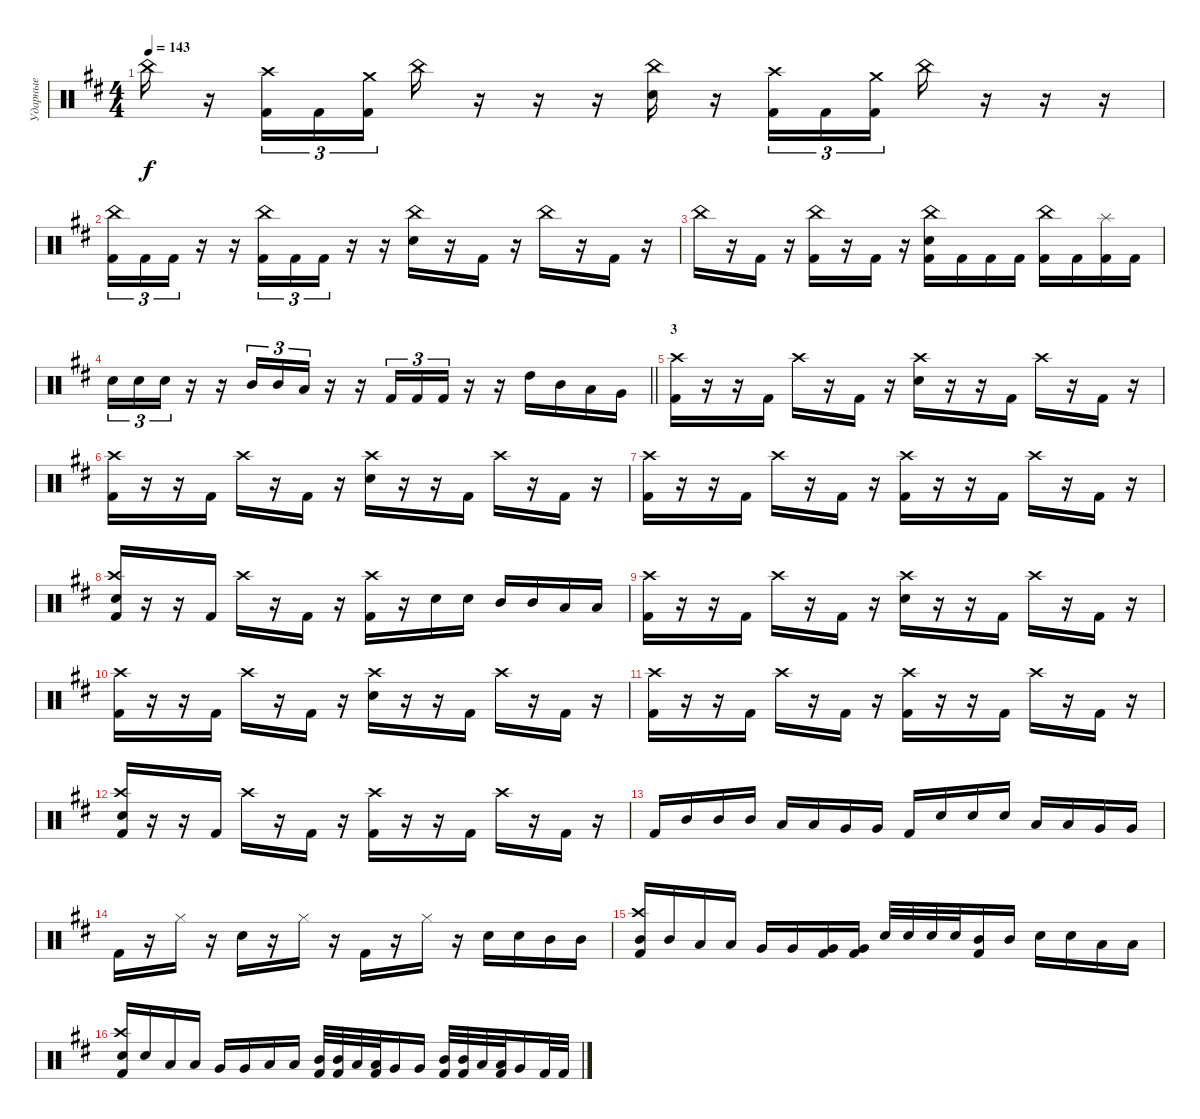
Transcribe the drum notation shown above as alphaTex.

\track ("Ударные" "Ударные") {instrument percussion}
\staff {score}
\articulation defaults
\ts (4 4)
\tempo 143
\clef neutral
\ks bminor "China (hit)".16{dy f}
r.16 ("Kick (hit) 2" "Crash high (hit)").16{tu (3 2)} "Kick (hit) 2".16{tu (3 2)} ("Kick (hit) 2" "Crash medium (hit)").16{tu (3 2)} "China (hit)".16 r.16 r.16 r.16 ("China (hit)" "Electric Snare (hit)").16 r.16 ("Kick (hit) 2" "Crash high (hit)").16{tu (3 2)} "Kick (hit) 2".16{tu (3 2)} ("Kick (hit) 2" "Crash medium (hit)").16{tu (3 2)} "China (hit)".16 r.16 r.16 r.16 |
("China (hit)" "Kick (hit) 2").16{tu (3 2)} "Kick (hit) 2".16{tu (3 2)} "Kick (hit) 2".16{tu (3 2)} r.16 r.16 ("China (hit)" "Kick (hit) 2").16{tu (3 2)} "Kick (hit) 2".16{tu (3 2)} "Kick (hit) 2".16{tu (3 2)} r.16 r.16 ("Electric Snare (hit)" "China (hit)").16 r.16 "Kick (hit) 2".16 r.16 "China (hit)".16 r.16 "Kick (hit) 2".16 r.16 |
"China (hit)".16 r.16 "Kick (hit) 2".16 r.16 ("Kick (hit) 2" "China (hit)").16 r.16 "Kick (hit) 2".16 r.16 ("Kick (hit) 2" "China (hit)" "Electric Snare (hit)").16 "Kick (hit) 2".16 "Kick (hit) 2".16 "Kick (hit) 2".16 ("Kick (hit) 2" "China (hit)").16 "Kick (hit) 2".16 ("Kick (hit) 2" "Splash (hit)").16 "Kick (hit) 2".16 |
\barLineRight lightlight "Electric Snare (hit)".16{tu (3 2)} "Electric Snare (hit)".16{tu (3 2)} "Electric Snare (hit)".16{tu (3 2)}
r.16 r.16 "Mid Tom (hit)".16{tu (3 2)} "Mid Tom (hit)".16{tu (3 2)} "Low Tom (hit)".16{tu (3 2)} r.16 r.16 "Kick (hit) 2".16{tu (3 2)} "Kick (hit) 2".16{tu (3 2)} "Kick (hit) 2".16{tu (3 2)} r.16 r.16 "High Tom (hit)".16 "Mid Tom (hit)".16 "Low Tom (hit)".16 "Very Low Tom (hit)".16 |
\section ("" "3")
("Kick (hit) 2" "Crash high (hit)").16 r.16 r.16 "Kick (hit) 2".16 "Crash high (hit)".16 r.16 "Kick (hit) 2".16 r.16 ("Crash high (hit)" "Electric Snare (hit)").16 r.16 r.16 "Kick (hit) 2".16 "Crash high (hit)".16 r.16 "Kick (hit) 2".16 r.16 |
("Kick (hit) 2" "Crash high (hit)").16 r.16 r.16 "Kick (hit) 2".16 "Crash high (hit)".16 r.16 "Kick (hit) 2".16 r.16 ("Crash high (hit)" "Electric Snare (hit)").16 r.16 r.16 "Kick (hit) 2".16 "Crash high (hit)".16 r.16 "Kick (hit) 2".16 r.16 |
("Kick (hit) 2" "Crash high (hit)").16 r.16 r.16 "Kick (hit) 2".16 "Crash high (hit)".16 r.16 "Kick (hit) 2".16 r.16 ("Crash high (hit)" "Kick (hit) 2").16 r.16 r.16 "Kick (hit) 2".16 "Crash high (hit)".16 r.16 "Kick (hit) 2".16 r.16 |
("Kick (hit) 2" "Crash high (hit)" "Electric Snare (hit)").16 r.16 r.16 "Kick (hit) 2".16 "Crash high (hit)".16 r.16 "Kick (hit) 2".16 r.16 ("Crash high (hit)" "Kick (hit) 2").16 r.16 "Electric Snare (hit)".16 "Electric Snare (hit)".16 "Mid Tom (hit)".16 "Mid Tom (hit)".16 "Low Tom (hit)".16 "Low Tom (hit)".16 |
("Kick (hit) 2" "Crash high (hit)").16 r.16 r.16 "Kick (hit) 2".16 "Crash high (hit)".16 r.16 "Kick (hit) 2".16 r.16 ("Crash high (hit)" "Electric Snare (hit)").16 r.16 r.16 "Kick (hit) 2".16 "Crash high (hit)".16 r.16 "Kick (hit) 2".16 r.16 |
("Kick (hit) 2" "Crash high (hit)").16 r.16 r.16 "Kick (hit) 2".16 "Crash high (hit)".16 r.16 "Kick (hit) 2".16 r.16 ("Crash high (hit)" "Electric Snare (hit)").16 r.16 r.16 "Kick (hit) 2".16 "Crash high (hit)".16 r.16 "Kick (hit) 2".16 r.16 |
("Kick (hit) 2" "Crash high (hit)").16 r.16 r.16 "Kick (hit) 2".16 "Crash high (hit)".16 r.16 "Kick (hit) 2".16 r.16 ("Crash high (hit)" "Kick (hit) 2").16 r.16 r.16 "Kick (hit) 2".16 "Crash high (hit)".16 r.16 "Kick (hit) 2".16 r.16 |
("Kick (hit) 2" "Crash high (hit)" "Electric Snare (hit)").16 r.16 r.16 "Kick (hit) 2".16 "Crash high (hit)".16 r.16 "Kick (hit) 2".16 r.16 ("Crash high (hit)" "Kick (hit) 2").16 r.16 r.16 "Kick (hit) 2".16 "Crash high (hit)".16 r.16 "Kick (hit) 2".16 r.16 |
"Kick (hit) 2".16 "Mid Tom (hit)".16 "Mid Tom (hit)".16 "Mid Tom (hit)".16 "Low Tom (hit)".16 "Low Tom (hit)".16 "Very Low Tom (hit)".16 "Very Low Tom (hit)".16 "Kick (hit) 2".16 "Electric Snare (hit)".16 "Electric Snare (hit)".16 "Electric Snare (hit)".16 "Low Tom (hit)".16 "Low Tom (hit)".16 "Very Low Tom (hit)".16 "Very Low Tom (hit)".16 |
"Kick (hit) 2".16 r.16 "Hi-Hat (closed)".16 r.16 "Electric Snare (hit)".16 r.16 "Hi-Hat (closed)".16 r.16 "Kick (hit) 2".16 r.16 "Hi-Hat (closed)".16 r.16 "Electric Snare (hit)".16 "Electric Snare (hit)".16 "Mid Tom (hit)".16 "Mid Tom (hit)".16 |
("Kick (hit) 2" "Mid Tom (hit)" "Crash high (hit)").16 "Mid Tom (hit)".16 "Low Tom (hit)".16 "Low Tom (hit)".16 "Very Low Tom (hit)".16 "Very Low Tom (hit)".16 ("Very Low Tom (hit)" "Kick (hit) 2").16 ("Very Low Tom (hit)" "Kick (hit) 2").16 "Electric Snare (hit)".32 "Electric Snare (hit)".32 "Electric Snare (hit)".32 "Electric Snare (hit)".32 ("Kick (hit) 2" "Mid Tom (hit)").16 "Mid Tom (hit)".16 "Electric Snare (hit)".16 "Electric Snare (hit)".16 "Low Tom (hit)".16 "Low Tom (hit)".16 |
("Kick (hit) 2" "Crash high (hit)" "Electric Snare (hit)").16 "Electric Snare (hit)".16 "Low Tom (hit)".16 "Low Tom (hit)".16 "Very Low Tom (hit)".16 "Very Low Tom (hit)".16 "Low Floor Tom (hit)".16 "Low Floor Tom (hit)".16 ("Kick (hit) 2" "Mid Tom (hit)").32 ("Kick (hit) 2" "Mid Tom (hit)").32 "Low Tom (hit)".32 ("Kick (hit) 2" "Low Tom (hit)").32 "Very Low Tom (hit)".16 "Very Low Tom (hit)".16 ("Kick (hit) 2" "Mid Tom (hit)").32 ("Kick (hit) 2" "Mid Tom (hit)").32 "Low Tom (hit)".32 ("Kick (hit) 2" "Low Tom (hit)").32 "Very Low Tom (hit)".16 "Kick (hit) 2".32 "Kick (hit) 2".32
